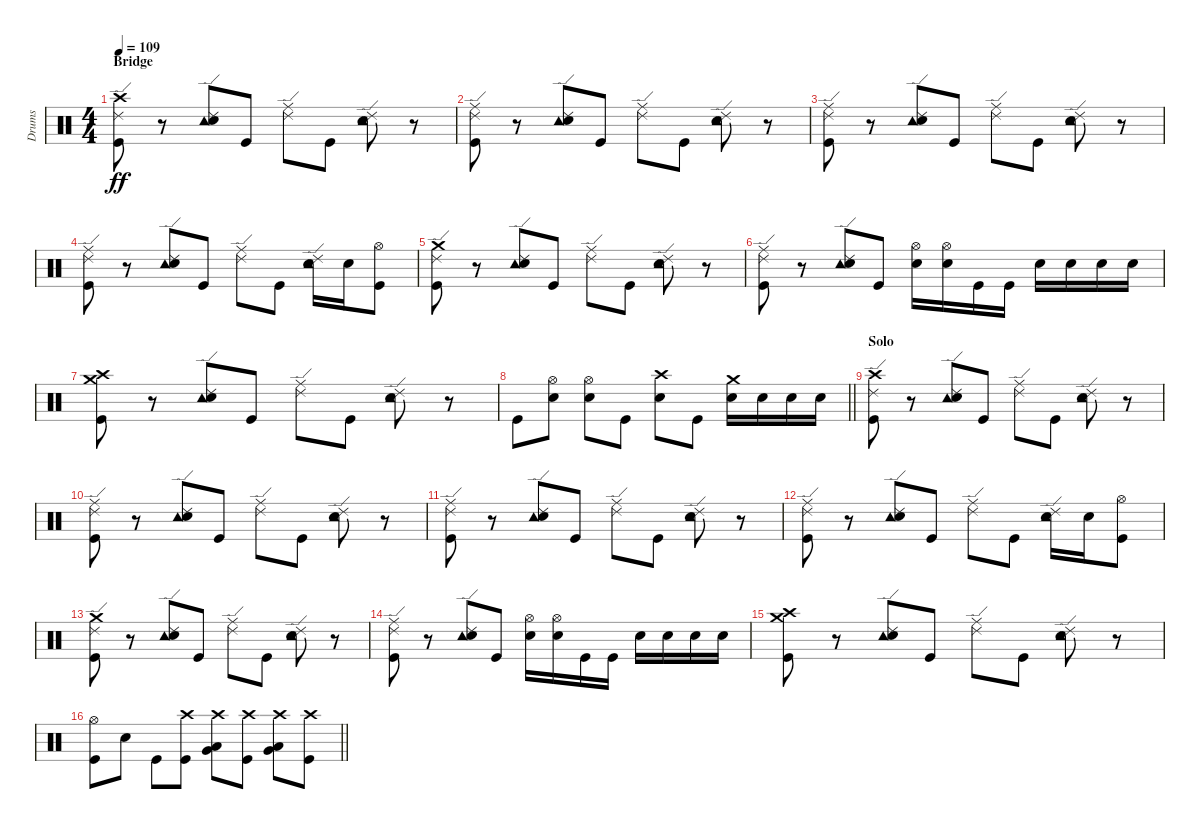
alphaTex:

\track ("Drums" "Drums") {instrument percussion}
\staff {score}
\articulation defaults
\ts (4 4)
\section ("" "Bridge")
\tempo 109
\clef neutral
\ks c
("Crash high (hit)" "Ride (edge) 2" "Kick (hit)").8{dy ff} r.8 ("Ride (edge) 2" "Tambourine (hit)" "Electric Snare (hit)").8 "Kick (hit)".8 ("Ride (middle)" "Ride (edge) 2").8 "Kick (hit)".8 ("Ride (edge) 2" "Tambourine (hit)" "Electric Snare (hit)").8 r.8 |
("Ride (middle)" "Ride (edge) 2" "Kick (hit)").8 r.8 ("Ride (edge) 2" "Tambourine (hit)" "Electric Snare (hit)").8 "Kick (hit)".8 ("Ride (middle)" "Ride (edge) 2").8 "Kick (hit)".8 ("Ride (edge) 2" "Tambourine (hit)" "Electric Snare (hit)").8 r.8 |
("Ride (middle)" "Ride (edge) 2" "Kick (hit)").8 r.8 ("Ride (edge) 2" "Tambourine (hit)" "Electric Snare (hit)").8 "Kick (hit)".8 ("Ride (middle)" "Ride (edge) 2").8 "Kick (hit)".8 ("Ride (edge) 2" "Tambourine (hit)" "Electric Snare (hit)").8 r.8 |
("Ride (middle)" "Ride (edge) 2" "Kick (hit)").8 r.8 ("Ride (edge) 2" "Tambourine (hit)" "Electric Snare (hit)").8 "Kick (hit)".8 ("Ride (middle)" "Ride (edge) 2").8 "Kick (hit)".8 ("Ride (edge) 2" "Tambourine (hit)" "Electric Snare (hit)").16 "Electric Snare (hit)".16 ("Hi-Hat (open)" "Kick (hit)").8 |
("Crash medium (hit)" "Ride (edge) 2" "Kick (hit)").8 r.8 ("Ride (edge) 2" "Tambourine (hit)" "Electric Snare (hit)").8 "Kick (hit)".8 ("Ride (middle)" "Ride (edge) 2").8 "Kick (hit)".8 ("Ride (edge) 2" "Tambourine (hit)" "Electric Snare (hit)").8 r.8 |
("Ride (middle)" "Ride (edge) 2" "Kick (hit)").8 r.8 ("Ride (edge) 2" "Tambourine (hit)" "Electric Snare (hit)").8 "Kick (hit)".8 ("Hi-Hat (open)" "Electric Snare (hit)").16 ("Hi-Hat (open)" "Electric Snare (hit)").16 "Kick (hit)".16 "Kick (hit)".16 "Electric Snare (hit)".16 "Electric Snare (hit)".16 "Electric Snare (hit)".16 "Electric Snare (hit)".16 |
("Crash high (hit)" "Crash medium (hit)" "Kick (hit)").8 r.8 ("Ride (edge) 2" "Tambourine (hit)" "Electric Snare (hit)").8 "Kick (hit)".8 ("Ride (middle)" "Ride (edge) 2").8 "Kick (hit)".8 ("Ride (edge) 2" "Tambourine (hit)" "Electric Snare (hit)").8 r.8 |
\barLineRight lightlight "Kick (hit)".8
("Hi-Hat (open)" "Electric Snare (hit)").8 ("Hi-Hat (open)" "Electric Snare (hit)").8 "Kick (hit)".8 ("Crash high (hit)" "Electric Snare (hit)").8 "Kick (hit)".8 ("Crash medium (hit)" "Electric Snare (hit)").16 "Electric Snare (hit)".16 "Electric Snare (hit)".16 "Electric Snare (hit)".16 |
\section ("" "Solo")
("Crash high (hit)" "Ride (edge) 2" "Kick (hit)").8 r.8 ("Ride (edge) 2" "Tambourine (hit)" "Electric Snare (hit)").8 "Kick (hit)".8 ("Ride (middle)" "Ride (edge) 2").8 "Kick (hit)".8 ("Ride (edge) 2" "Tambourine (hit)" "Electric Snare (hit)").8 r.8 |
("Ride (middle)" "Ride (edge) 2" "Kick (hit)").8 r.8 ("Ride (edge) 2" "Tambourine (hit)" "Electric Snare (hit)").8 "Kick (hit)".8 ("Ride (middle)" "Ride (edge) 2").8 "Kick (hit)".8 ("Ride (edge) 2" "Tambourine (hit)" "Electric Snare (hit)").8 r.8 |
("Ride (middle)" "Ride (edge) 2" "Kick (hit)").8 r.8 ("Ride (edge) 2" "Tambourine (hit)" "Electric Snare (hit)").8 "Kick (hit)".8 ("Ride (middle)" "Ride (edge) 2").8 "Kick (hit)".8 ("Ride (edge) 2" "Tambourine (hit)" "Electric Snare (hit)").8 r.8 |
("Ride (middle)" "Ride (edge) 2" "Kick (hit)").8 r.8 ("Ride (edge) 2" "Tambourine (hit)" "Electric Snare (hit)").8 "Kick (hit)".8 ("Ride (middle)" "Ride (edge) 2").8 "Kick (hit)".8 ("Ride (edge) 2" "Tambourine (hit)" "Electric Snare (hit)").16 "Electric Snare (hit)".16 ("Hi-Hat (open)" "Kick (hit)").8 |
("Crash medium (hit)" "Ride (edge) 2" "Kick (hit)").8 r.8 ("Ride (edge) 2" "Tambourine (hit)" "Electric Snare (hit)").8 "Kick (hit)".8 ("Ride (middle)" "Ride (edge) 2").8 "Kick (hit)".8 ("Ride (edge) 2" "Tambourine (hit)" "Electric Snare (hit)").8 r.8 |
("Ride (middle)" "Ride (edge) 2" "Kick (hit)").8 r.8 ("Ride (edge) 2" "Tambourine (hit)" "Electric Snare (hit)").8 "Kick (hit)".8 ("Hi-Hat (open)" "Electric Snare (hit)").16 ("Hi-Hat (open)" "Electric Snare (hit)").16 "Kick (hit)".16 "Kick (hit)".16 "Electric Snare (hit)".16 "Electric Snare (hit)".16 "Electric Snare (hit)".16 "Electric Snare (hit)".16 |
("Crash high (hit)" "Crash medium (hit)" "Kick (hit)").8 r.8 ("Ride (edge) 2" "Tambourine (hit)" "Electric Snare (hit)").8 "Kick (hit)".8 ("Ride (middle)" "Ride (edge) 2").8 "Kick (hit)".8 ("Ride (edge) 2" "Tambourine (hit)" "Electric Snare (hit)").8 r.8 |
\barLineRight lightlight
("Hi-Hat (open)" "Kick (hit)").8 "Electric Snare (hit)".8 "Kick (hit)".8 ("Crash high (hit)" "Kick (hit)").8 ("Crash high (hit)" "Low Tom (hit)" "Very Low Tom (hit)").8 ("Crash high (hit)" "Kick (hit)").8 ("Crash high (hit)" "Very Low Tom (hit)" "Low Floor Tom (hit)").8 ("Crash high (hit)" "Kick (hit)").8
